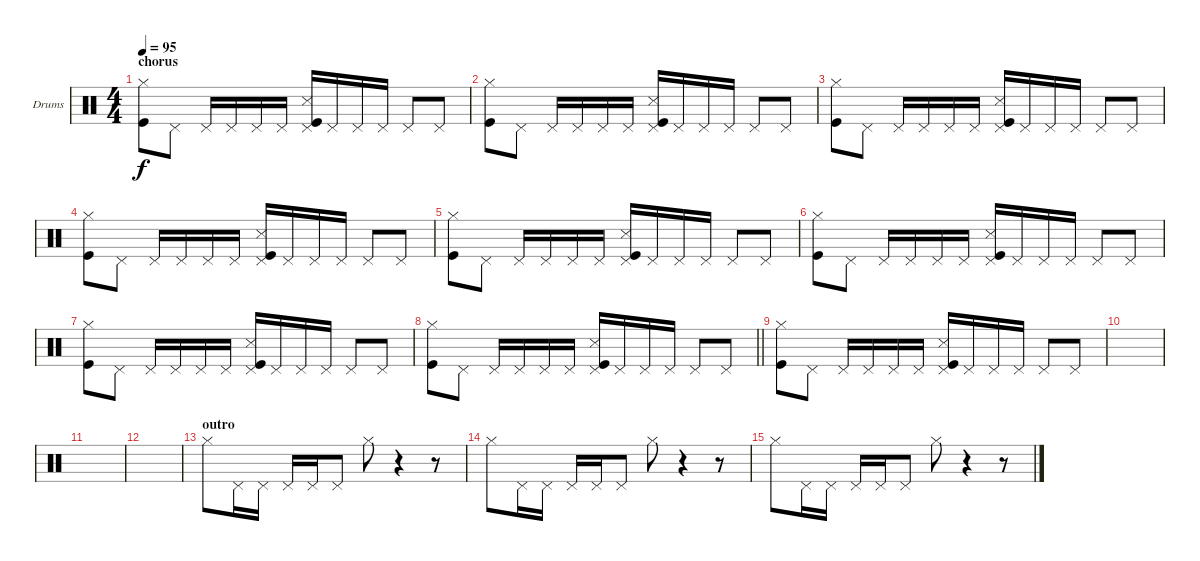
\bracketExtendMode groupsimilarinstruments
\firstSystemTrackNameOrientation horizontal
\otherSystemsTrackNameOrientation horizontal
\track ("Drumkit" "Drums") {instrument percussion}
\staff {score}
\articulation defaults
\ts (4 4)
\section ("" "chorus")
\tempo 95
\clef neutral
\ks c
("Kick (hit)" "Hi-Hat (closed)").8{dy f} "Pedal Hi-Hat (hit)".8 "Pedal Hi-Hat (hit)".16 "Pedal Hi-Hat (hit)".16 "Pedal Hi-Hat (hit)".16 "Pedal Hi-Hat (hit)".16 ("Kick (hit)" "Snare (side stick) 3" "Pedal Hi-Hat (hit)").16 "Pedal Hi-Hat (hit)".16 "Pedal Hi-Hat (hit)".16 "Pedal Hi-Hat (hit)".16 "Pedal Hi-Hat (hit)".8 "Pedal Hi-Hat (hit)".8 |
("Kick (hit)" "Hi-Hat (closed)").8 "Pedal Hi-Hat (hit)".8 "Pedal Hi-Hat (hit)".16 "Pedal Hi-Hat (hit)".16 "Pedal Hi-Hat (hit)".16 "Pedal Hi-Hat (hit)".16 ("Kick (hit)" "Snare (side stick) 3" "Pedal Hi-Hat (hit)").16 "Pedal Hi-Hat (hit)".16 "Pedal Hi-Hat (hit)".16 "Pedal Hi-Hat (hit)".16 "Pedal Hi-Hat (hit)".8 "Pedal Hi-Hat (hit)".8 |
("Kick (hit)" "Hi-Hat (closed)").8 "Pedal Hi-Hat (hit)".8 "Pedal Hi-Hat (hit)".16 "Pedal Hi-Hat (hit)".16 "Pedal Hi-Hat (hit)".16 "Pedal Hi-Hat (hit)".16 ("Kick (hit)" "Snare (side stick) 3" "Pedal Hi-Hat (hit)").16 "Pedal Hi-Hat (hit)".16 "Pedal Hi-Hat (hit)".16 "Pedal Hi-Hat (hit)".16 "Pedal Hi-Hat (hit)".8 "Pedal Hi-Hat (hit)".8 |
("Kick (hit)" "Hi-Hat (closed)").8 "Pedal Hi-Hat (hit)".8 "Pedal Hi-Hat (hit)".16 "Pedal Hi-Hat (hit)".16 "Pedal Hi-Hat (hit)".16 "Pedal Hi-Hat (hit)".16 ("Kick (hit)" "Snare (side stick) 3" "Pedal Hi-Hat (hit)").16 "Pedal Hi-Hat (hit)".16 "Pedal Hi-Hat (hit)".16 "Pedal Hi-Hat (hit)".16 "Pedal Hi-Hat (hit)".8 "Pedal Hi-Hat (hit)".8 |
("Kick (hit)" "Hi-Hat (closed)").8 "Pedal Hi-Hat (hit)".8 "Pedal Hi-Hat (hit)".16 "Pedal Hi-Hat (hit)".16 "Pedal Hi-Hat (hit)".16 "Pedal Hi-Hat (hit)".16 ("Kick (hit)" "Snare (side stick) 3" "Pedal Hi-Hat (hit)").16 "Pedal Hi-Hat (hit)".16 "Pedal Hi-Hat (hit)".16 "Pedal Hi-Hat (hit)".16 "Pedal Hi-Hat (hit)".8 "Pedal Hi-Hat (hit)".8 |
("Kick (hit)" "Hi-Hat (closed)").8 "Pedal Hi-Hat (hit)".8 "Pedal Hi-Hat (hit)".16 "Pedal Hi-Hat (hit)".16 "Pedal Hi-Hat (hit)".16 "Pedal Hi-Hat (hit)".16 ("Kick (hit)" "Snare (side stick) 3" "Pedal Hi-Hat (hit)").16 "Pedal Hi-Hat (hit)".16 "Pedal Hi-Hat (hit)".16 "Pedal Hi-Hat (hit)".16 "Pedal Hi-Hat (hit)".8 "Pedal Hi-Hat (hit)".8 |
("Kick (hit)" "Hi-Hat (closed)").8 "Pedal Hi-Hat (hit)".8 "Pedal Hi-Hat (hit)".16 "Pedal Hi-Hat (hit)".16 "Pedal Hi-Hat (hit)".16 "Pedal Hi-Hat (hit)".16 ("Kick (hit)" "Snare (side stick) 3" "Pedal Hi-Hat (hit)").16 "Pedal Hi-Hat (hit)".16 "Pedal Hi-Hat (hit)".16 "Pedal Hi-Hat (hit)".16 "Pedal Hi-Hat (hit)".8 "Pedal Hi-Hat (hit)".8 |
\barLineRight lightlight
("Kick (hit)" "Hi-Hat (closed)").8 "Pedal Hi-Hat (hit)".8 "Pedal Hi-Hat (hit)".16 "Pedal Hi-Hat (hit)".16 "Pedal Hi-Hat (hit)".16 "Pedal Hi-Hat (hit)".16 ("Kick (hit)" "Snare (side stick) 3" "Pedal Hi-Hat (hit)").16 "Pedal Hi-Hat (hit)".16 "Pedal Hi-Hat (hit)".16 "Pedal Hi-Hat (hit)".16 "Pedal Hi-Hat (hit)".8 "Pedal Hi-Hat (hit)".8 |
("Kick (hit)" "Hi-Hat (closed)").8 "Pedal Hi-Hat (hit)".8 "Pedal Hi-Hat (hit)".16 "Pedal Hi-Hat (hit)".16 "Pedal Hi-Hat (hit)".16 "Pedal Hi-Hat (hit)".16 ("Kick (hit)" "Snare (side stick) 3" "Pedal Hi-Hat (hit)").16 "Pedal Hi-Hat (hit)".16 "Pedal Hi-Hat (hit)".16 "Pedal Hi-Hat (hit)".16 "Pedal Hi-Hat (hit)".8 "Pedal Hi-Hat (hit)".8 |
|
|
|
\section ("" "outro")
"Hi-Hat (closed)".8 "Pedal Hi-Hat (hit)".16 "Pedal Hi-Hat (hit)".16 "Pedal Hi-Hat (hit)".16 "Pedal Hi-Hat (hit)".16 "Pedal Hi-Hat (hit)".8 "Hi-Hat (closed)".8 r.4 r.8 |
"Hi-Hat (closed)".8 "Pedal Hi-Hat (hit)".16 "Pedal Hi-Hat (hit)".16 "Pedal Hi-Hat (hit)".16 "Pedal Hi-Hat (hit)".16 "Pedal Hi-Hat (hit)".8 "Hi-Hat (closed)".8 r.4 r.8 |
"Hi-Hat (closed)".8 "Pedal Hi-Hat (hit)".16 "Pedal Hi-Hat (hit)".16 "Pedal Hi-Hat (hit)".16 "Pedal Hi-Hat (hit)".16 "Pedal Hi-Hat (hit)".8 "Hi-Hat (closed)".8 r.4 r.8
